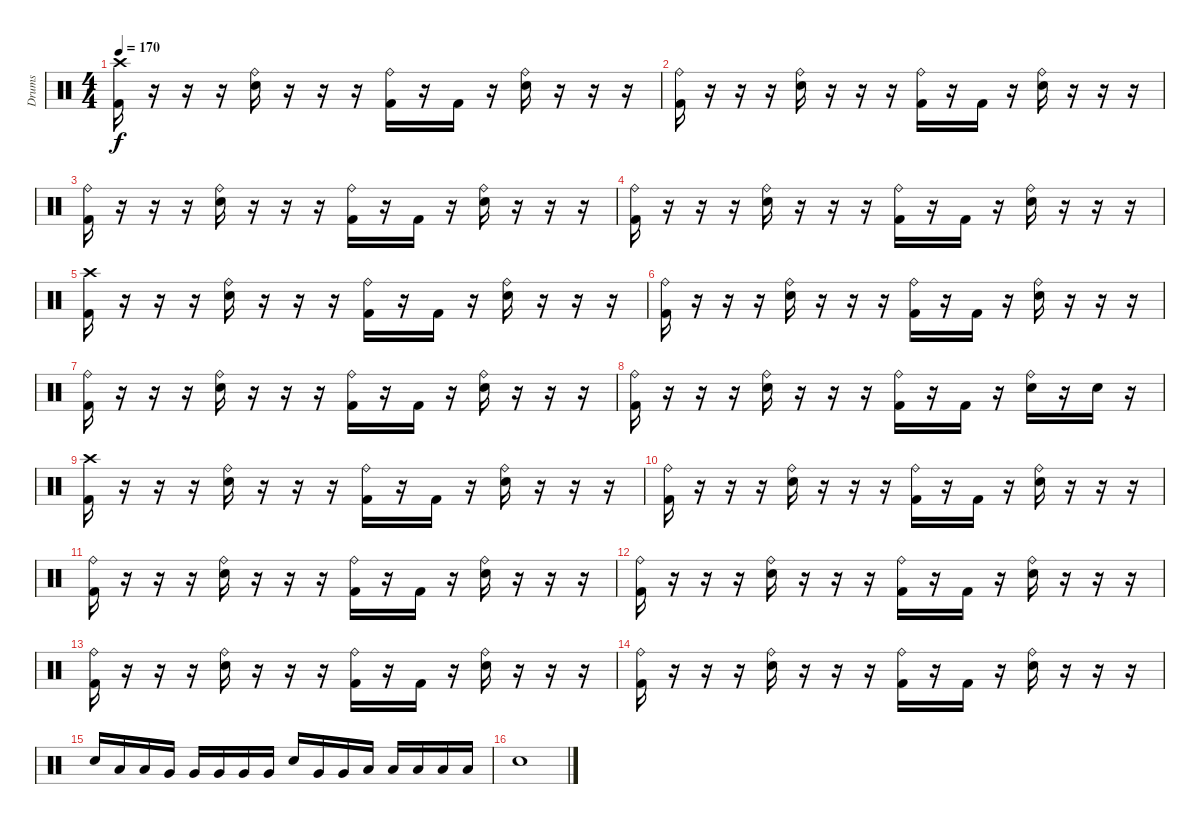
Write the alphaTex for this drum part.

\track ("Drums" "Drums") {instrument percussion}
\staff {score}
\articulation defaults
\ts (4 4)
\tempo 170
\clef neutral
\ks c
("Crash high (hit)" "Kick (hit) 2").16{dy f} r.16 r.16 r.16 ("Ride (bell)" "Snare (hit) 2").16 r.16 r.16 r.16 ("Ride (bell)" "Kick (hit) 2").16 r.16 "Kick (hit) 2".16 r.16 ("Ride (bell)" "Snare (hit) 2").16 r.16 r.16 r.16 |
("Ride (bell)" "Kick (hit) 2").16 r.16 r.16 r.16 ("Ride (bell)" "Snare (hit) 2").16 r.16 r.16 r.16 ("Ride (bell)" "Kick (hit) 2").16 r.16 "Kick (hit) 2".16 r.16 ("Ride (bell)" "Snare (hit) 2").16 r.16 r.16 r.16 |
("Ride (bell)" "Kick (hit) 2").16 r.16 r.16 r.16 ("Ride (bell)" "Snare (hit) 2").16 r.16 r.16 r.16 ("Ride (bell)" "Kick (hit) 2").16 r.16 "Kick (hit) 2".16 r.16 ("Ride (bell)" "Snare (hit) 2").16 r.16 r.16 r.16 |
("Ride (bell)" "Kick (hit) 2").16 r.16 r.16 r.16 ("Ride (bell)" "Snare (hit) 2").16 r.16 r.16 r.16 ("Ride (bell)" "Kick (hit) 2").16 r.16 "Kick (hit) 2".16 r.16 ("Ride (bell)" "Snare (hit) 2").16 r.16 r.16 r.16 |
("Crash high (hit)" "Kick (hit) 2").16 r.16 r.16 r.16 ("Ride (bell)" "Snare (hit) 2").16 r.16 r.16 r.16 ("Ride (bell)" "Kick (hit) 2").16 r.16 "Kick (hit) 2".16 r.16 ("Ride (bell)" "Snare (hit) 2").16 r.16 r.16 r.16 |
("Ride (bell)" "Kick (hit) 2").16 r.16 r.16 r.16 ("Ride (bell)" "Snare (hit) 2").16 r.16 r.16 r.16 ("Ride (bell)" "Kick (hit) 2").16 r.16 "Kick (hit) 2".16 r.16 ("Ride (bell)" "Snare (hit) 2").16 r.16 r.16 r.16 |
("Ride (bell)" "Kick (hit) 2").16 r.16 r.16 r.16 ("Ride (bell)" "Snare (hit) 2").16 r.16 r.16 r.16 ("Ride (bell)" "Kick (hit) 2").16 r.16 "Kick (hit) 2".16 r.16 ("Ride (bell)" "Snare (hit) 2").16 r.16 r.16 r.16 |
("Ride (bell)" "Kick (hit) 2").16 r.16 r.16 r.16 ("Ride (bell)" "Snare (hit) 2").16 r.16 r.16 r.16 ("Ride (bell)" "Kick (hit) 2").16 r.16 "Kick (hit) 2".16 r.16 ("Ride (bell)" "Snare (hit) 2").16 r.16 "Snare (hit) 2".16 r.16 |
("Crash high (hit)" "Kick (hit) 2").16 r.16 r.16 r.16 ("Ride (bell)" "Snare (hit) 2").16 r.16 r.16 r.16 ("Ride (bell)" "Kick (hit) 2").16 r.16 "Kick (hit) 2".16 r.16 ("Ride (bell)" "Snare (hit) 2").16 r.16 r.16 r.16 |
("Ride (bell)" "Kick (hit) 2").16 r.16 r.16 r.16 ("Ride (bell)" "Snare (hit) 2").16 r.16 r.16 r.16 ("Ride (bell)" "Kick (hit) 2").16 r.16 "Kick (hit) 2".16 r.16 ("Ride (bell)" "Snare (hit) 2").16 r.16 r.16 r.16 |
("Ride (bell)" "Kick (hit) 2").16 r.16 r.16 r.16 ("Ride (bell)" "Snare (hit) 2").16 r.16 r.16 r.16 ("Ride (bell)" "Kick (hit) 2").16 r.16 "Kick (hit) 2".16 r.16 ("Ride (bell)" "Snare (hit) 2").16 r.16 r.16 r.16 |
("Ride (bell)" "Kick (hit) 2").16 r.16 r.16 r.16 ("Ride (bell)" "Snare (hit) 2").16 r.16 r.16 r.16 ("Ride (bell)" "Kick (hit) 2").16 r.16 "Kick (hit) 2".16 r.16 ("Ride (bell)" "Snare (hit) 2").16 r.16 r.16 r.16 |
("Ride (bell)" "Kick (hit) 2").16 r.16 r.16 r.16 ("Ride (bell)" "Snare (hit) 2").16 r.16 r.16 r.16 ("Ride (bell)" "Kick (hit) 2").16 r.16 "Kick (hit) 2".16 r.16 ("Ride (bell)" "Snare (hit) 2").16 r.16 r.16 r.16 |
("Ride (bell)" "Kick (hit) 2").16 r.16 r.16 r.16 ("Ride (bell)" "Snare (hit) 2").16 r.16 r.16 r.16 ("Ride (bell)" "Kick (hit) 2").16 r.16 "Kick (hit) 2".16 r.16 ("Ride (bell)" "Snare (hit) 2").16 r.16 r.16 r.16 |
"Snare (hit) 2".16 "Low Tom (hit)".16 "Low Tom (hit)".16 "Very Low Tom (hit)".16 "Very Low Tom (hit)".16 "Very Low Tom (hit)".16 "Very Low Tom (hit)".16 "Very Low Tom (hit)".16 "Snare (hit) 2".16 "Very Low Tom (hit)".16 "Very Low Tom (hit)".16 "Low Floor Tom (hit)".16 "Low Floor Tom (hit)".16 "Low Floor Tom (hit)".16 "Low Floor Tom (hit)".16 "Low Floor Tom (hit)".16 |
"Snare (hit) 2".1
